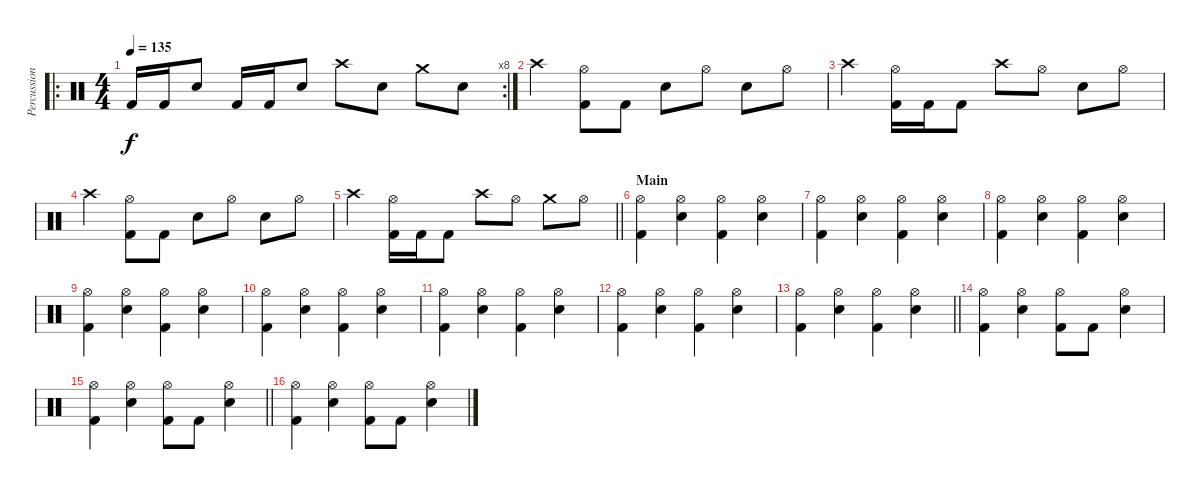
\track ("Percussion" "Percussion") {instrument percussion}
\staff {score}
\articulation defaults
\ro
\rc 8
\ts (4 4)
\tempo 135
\clef neutral
\ks c "Kick (hit) 2".16{dy f} "Kick (hit) 2".16 "Snare (hit) 2".8 "Kick (hit) 2".16 "Kick (hit) 2".16 "Snare (hit) 2".8 "Crash high (hit)".8 "Snare (hit) 2".8 "Crash medium (hit)".8 "Snare (hit) 2".8
|
"Crash high (hit)".4 ("Hi-Hat (open)" "Kick (hit) 2").8 "Kick (hit) 2".8 "Snare (hit) 2".8 "Hi-Hat (open)".8 "Snare (hit) 2".8 "Hi-Hat (open)".8 |
"Crash high (hit)".4 ("Hi-Hat (open)" "Kick (hit) 2").16 "Kick (hit) 2".16 "Kick (hit) 2".8 "Crash high (hit)".8 "Hi-Hat (open)".8 "Snare (hit) 2".8 "Hi-Hat (open)".8 |
"Crash high (hit)".4 ("Hi-Hat (open)" "Kick (hit) 2").8 "Kick (hit) 2".8 "Snare (hit) 2".8 "Hi-Hat (open)".8 "Snare (hit) 2".8 "Hi-Hat (open)".8 |
\barLineRight lightlight "Crash high (hit)".4
("Hi-Hat (open)" "Kick (hit) 2").16 "Kick (hit) 2".16 "Kick (hit) 2".8 "Crash high (hit)".8 "Hi-Hat (open)".8 "Crash medium (hit)".8 "Hi-Hat (open)".8 |
\section ("" "Main")
("Hi-Hat (open)" "Kick (hit) 2").4 ("Hi-Hat (open)" "Snare (hit) 2").4 ("Hi-Hat (open)" "Kick (hit) 2").4 ("Hi-Hat (open)" "Snare (hit) 2").4 |
("Hi-Hat (open)" "Kick (hit) 2").4 ("Hi-Hat (open)" "Snare (hit) 2").4 ("Hi-Hat (open)" "Kick (hit) 2").4 ("Hi-Hat (open)" "Snare (hit) 2").4 |
("Hi-Hat (open)" "Kick (hit) 2").4 ("Hi-Hat (open)" "Snare (hit) 2").4 ("Hi-Hat (open)" "Kick (hit) 2").4 ("Hi-Hat (open)" "Snare (hit) 2").4 |
("Hi-Hat (open)" "Kick (hit) 2").4 ("Hi-Hat (open)" "Snare (hit) 2").4 ("Hi-Hat (open)" "Kick (hit) 2").4 ("Hi-Hat (open)" "Snare (hit) 2").4 |
("Hi-Hat (open)" "Kick (hit) 2").4 ("Hi-Hat (open)" "Snare (hit) 2").4 ("Hi-Hat (open)" "Kick (hit) 2").4 ("Hi-Hat (open)" "Snare (hit) 2").4 |
("Hi-Hat (open)" "Kick (hit) 2").4 ("Hi-Hat (open)" "Snare (hit) 2").4 ("Hi-Hat (open)" "Kick (hit) 2").4 ("Hi-Hat (open)" "Snare (hit) 2").4 |
("Hi-Hat (open)" "Kick (hit) 2").4 ("Hi-Hat (open)" "Snare (hit) 2").4 ("Hi-Hat (open)" "Kick (hit) 2").4 ("Hi-Hat (open)" "Snare (hit) 2").4 |
\barLineRight lightlight
("Hi-Hat (open)" "Kick (hit) 2").4 ("Hi-Hat (open)" "Snare (hit) 2").4 ("Hi-Hat (open)" "Kick (hit) 2").4 ("Hi-Hat (open)" "Snare (hit) 2").4 |
("Hi-Hat (open)" "Kick (hit) 2").4 ("Hi-Hat (open)" "Snare (hit) 2").4 ("Hi-Hat (open)" "Kick (hit) 2").8 "Kick (hit) 2".8 ("Hi-Hat (open)" "Snare (hit) 2").4 |
\barLineRight lightlight
("Hi-Hat (open)" "Kick (hit) 2").4 ("Hi-Hat (open)" "Snare (hit) 2").4 ("Hi-Hat (open)" "Kick (hit) 2").8 "Kick (hit) 2".8 ("Hi-Hat (open)" "Snare (hit) 2").4 |
("Hi-Hat (open)" "Kick (hit) 2").4 ("Hi-Hat (open)" "Snare (hit) 2").4 ("Hi-Hat (open)" "Kick (hit) 2").8 "Kick (hit) 2".8 ("Hi-Hat (open)" "Snare (hit) 2").4
